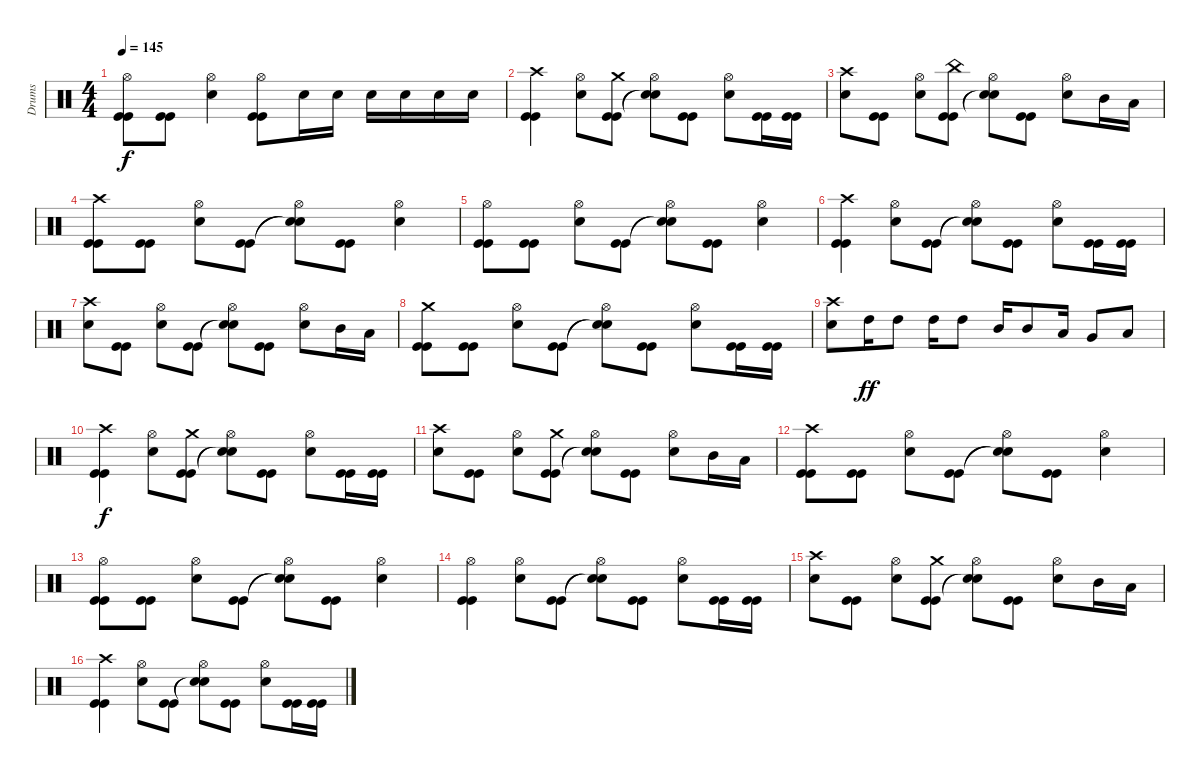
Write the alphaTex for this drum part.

\track ("Drums" "Drums") {instrument percussion}
\staff {score}
\articulation defaults
\ts (4 4)
\tempo 145
\clef neutral
\ks c
("Kick (hit)" "Kick (hit)" "Hi-Hat (open)").8{dy f} ("Kick (hit)" "Kick (hit)").8 ("Snare (hit) 2" "Hi-Hat (open)").4 ("Kick (hit)" "Kick (hit)" "Hi-Hat (open)").8 "Snare (hit) 2".16 "Snare (hit) 2".16 "Snare (hit) 2".16 "Snare (hit) 2".16 "Snare (hit) 2".16 "Snare (hit) 2".16 |
("Kick (hit)" "Kick (hit)" "Crash high (hit)").4 ("Snare (hit) 2" "Hi-Hat (open)").8 ("Kick (hit)" "Kick (hit)" "Crash medium (hit)").8 ("Snare (hit)"{t} "Snare (hit)"{t} "Hi-Hat (open)").8 ("Kick (hit)" "Kick (hit)").8 ("Snare (hit) 2" "Hi-Hat (open)").8 ("Kick (hit)" "Kick (hit)").16 ("Kick (hit)" "Kick (hit)").16 |
("Snare (hit) 2" "Crash high (hit)").8 ("Kick (hit)" "Kick (hit)").8 ("Snare (hit) 2" "Hi-Hat (open)").8 ("Kick (hit)" "Kick (hit)" "China (hit)").8 ("Snare (hit)"{t} "Snare (hit)"{t} "Hi-Hat (open)").8 ("Kick (hit)" "Kick (hit)").8 ("Snare (hit) 2" "Hi-Hat (open)").8 "Mid Tom (hit)".16 "Low Tom (hit)".16 |
("Kick (hit)" "Kick (hit)" "Crash high (hit)").8 ("Kick (hit)" "Kick (hit)").8 ("Snare (hit) 2" "Hi-Hat (open)").8 ("Kick (hit)" "Kick (hit)").8 ("Snare (hit)"{t} "Snare (hit)"{t} "Hi-Hat (open)").8 ("Kick (hit)" "Kick (hit)").8 ("Snare (hit) 2" "Hi-Hat (open)").4 |
("Kick (hit)" "Kick (hit)" "Hi-Hat (open)").8 ("Kick (hit)" "Kick (hit)").8 ("Snare (hit) 2" "Hi-Hat (open)").8 ("Kick (hit)" "Kick (hit)").8 ("Snare (hit)"{t} "Snare (hit)"{t} "Hi-Hat (open)").8 ("Kick (hit)" "Kick (hit)").8 ("Snare (hit) 2" "Hi-Hat (open)").4 |
("Kick (hit)" "Kick (hit)" "Crash high (hit)").4 ("Snare (hit) 2" "Hi-Hat (open)").8 ("Kick (hit)" "Kick (hit)").8 ("Snare (hit)"{t} "Snare (hit)"{t} "Hi-Hat (open)").8 ("Kick (hit)" "Kick (hit)").8 ("Snare (hit) 2" "Hi-Hat (open)").8 ("Kick (hit)" "Kick (hit)").16 ("Kick (hit)" "Kick (hit)").16 |
("Snare (hit) 2" "Crash high (hit)").8 ("Kick (hit)" "Kick (hit)").8 ("Snare (hit) 2" "Hi-Hat (open)").8 ("Kick (hit)" "Kick (hit)").8 ("Snare (hit)"{t} "Snare (hit)"{t} "Hi-Hat (open)").8 ("Kick (hit)" "Kick (hit)").8 ("Snare (hit) 2" "Hi-Hat (open)").8 "Mid Tom (hit)".16 "Low Tom (hit)".16 |
("Kick (hit)" "Kick (hit)" "Crash medium (hit)").8 ("Kick (hit)" "Kick (hit)").8 ("Snare (hit) 2" "Hi-Hat (open)").8 ("Kick (hit)" "Kick (hit)").8 ("Snare (hit)"{t} "Snare (hit)"{t} "Hi-Hat (open)").8 ("Kick (hit)" "Kick (hit)").8 ("Snare (hit) 2" "Hi-Hat (open)").8 ("Kick (hit)" "Kick (hit)").16 ("Kick (hit)" "Kick (hit)").16 |
("Snare (hit) 2" "Crash high (hit)").8 "High Tom (hit)".16{dy ff} "High Tom (hit)".8 "High Tom (hit)".16 "High Tom (hit)".8 "Mid Tom (hit)".16 "Mid Tom (hit)".8 "Low Tom (hit)".16 "Very Low Tom (hit)".8 "Low Floor Tom (hit)".8 |
("Kick (hit)" "Kick (hit)" "Crash high (hit)").4{dy f} ("Snare (hit) 2" "Hi-Hat (open)").8 ("Kick (hit)" "Kick (hit)" "Crash medium (hit)").8 ("Snare (hit)"{t} "Snare (hit)"{t} "Hi-Hat (open)").8 ("Kick (hit)" "Kick (hit)").8 ("Snare (hit) 2" "Hi-Hat (open)").8 ("Kick (hit)" "Kick (hit)").16 ("Kick (hit)" "Kick (hit)").16 |
("Snare (hit) 2" "Crash high (hit)").8 ("Kick (hit)" "Kick (hit)").8 ("Snare (hit) 2" "Hi-Hat (open)").8 ("Kick (hit)" "Kick (hit)" "Crash medium (hit)").8 ("Snare (hit)"{t} "Snare (hit)"{t} "Hi-Hat (open)").8 ("Kick (hit)" "Kick (hit)").8 ("Snare (hit) 2" "Hi-Hat (open)").8 "Mid Tom (hit)".16 "Low Tom (hit)".16 |
("Kick (hit)" "Kick (hit)" "Crash high (hit)").8 ("Kick (hit)" "Kick (hit)").8 ("Snare (hit) 2" "Hi-Hat (open)").8 ("Kick (hit)" "Kick (hit)").8 ("Snare (hit)"{t} "Snare (hit)"{t} "Hi-Hat (open)").8 ("Kick (hit)" "Kick (hit)").8 ("Snare (hit) 2" "Hi-Hat (open)").4 |
("Kick (hit)" "Kick (hit)" "Hi-Hat (open)").8 ("Kick (hit)" "Kick (hit)").8 ("Snare (hit) 2" "Hi-Hat (open)").8 ("Kick (hit)" "Kick (hit)").8 ("Snare (hit)"{t} "Snare (hit)"{t} "Hi-Hat (open)").8 ("Kick (hit)" "Kick (hit)").8 ("Snare (hit) 2" "Hi-Hat (open)").4 |
("Kick (hit)" "Kick (hit)" "Hi-Hat (open)").4 ("Snare (hit) 2" "Hi-Hat (open)").8 ("Kick (hit)" "Kick (hit)").8 ("Snare (hit)"{t} "Snare (hit)"{t} "Hi-Hat (open)").8 ("Kick (hit)" "Kick (hit)").8 ("Snare (hit) 2" "Hi-Hat (open)").8 ("Kick (hit)" "Kick (hit)").16 ("Kick (hit)" "Kick (hit)").16 |
("Snare (hit) 2" "Crash high (hit)").8 ("Kick (hit)" "Kick (hit)").8 ("Snare (hit) 2" "Hi-Hat (open)").8 ("Kick (hit)" "Kick (hit)" "Crash medium (hit)").8 ("Snare (hit)"{t} "Snare (hit)"{t} "Hi-Hat (open)").8 ("Kick (hit)" "Kick (hit)").8 ("Snare (hit) 2" "Hi-Hat (open)").8 "Mid Tom (hit)".16 "Low Tom (hit)".16 |
("Kick (hit)" "Kick (hit)" "Crash high (hit)").4 ("Snare (hit) 2" "Hi-Hat (open)").8 ("Kick (hit)" "Kick (hit)").8 ("Snare (hit)"{t} "Snare (hit)"{t} "Hi-Hat (open)").8 ("Kick (hit)" "Kick (hit)").8 ("Snare (hit) 2" "Hi-Hat (open)").8 ("Kick (hit)" "Kick (hit)").16 ("Kick (hit)" "Kick (hit)").16
